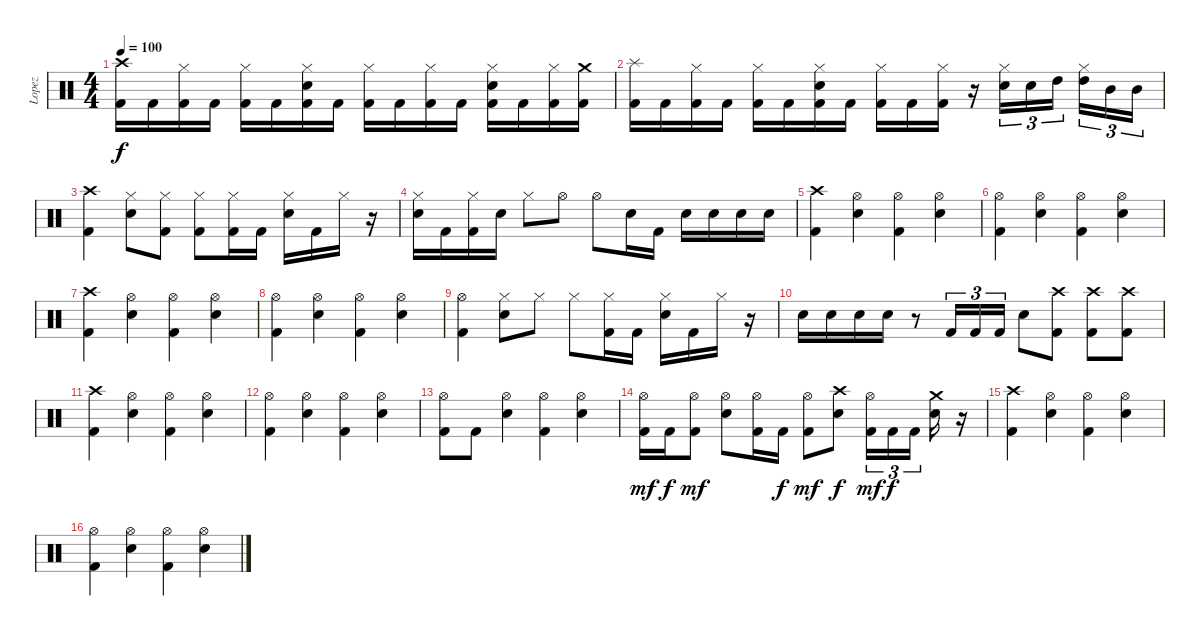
\track ("Lopez" "Lopez") {instrument percussion}
\staff {score}
\articulation defaults
\ts (4 4)
\tempo 100
\clef neutral
\ks c
("Crash high (hit)" "Kick (hit) 2").16{dy f} "Kick (hit) 2".16 ("Hi-Hat (closed)" "Kick (hit) 2").16 "Kick (hit) 2".16 ("Hi-Hat (closed)" "Kick (hit) 2").16 "Kick (hit) 2".16 ("Hi-Hat (closed)" "Snare (hit) 2" "Kick (hit) 2").16 "Kick (hit) 2".16 ("Hi-Hat (closed)" "Kick (hit) 2").16 "Kick (hit) 2".16 ("Hi-Hat (closed)" "Kick (hit) 2").16 "Kick (hit) 2".16 ("Hi-Hat (closed)" "Snare (hit) 2" "Kick (hit) 2").16 "Kick (hit) 2".16 ("Hi-Hat (closed)" "Kick (hit) 2").16 ("Crash medium (hit)" "Kick (hit) 2").16 |
("Splash (hit)" "Kick (hit) 2").16 "Kick (hit) 2".16 ("Hi-Hat (closed)" "Kick (hit) 2").16 "Kick (hit) 2".16 ("Hi-Hat (closed)" "Kick (hit) 2").16 "Kick (hit) 2".16 ("Hi-Hat (closed)" "Snare (hit) 2" "Kick (hit) 2").16 "Kick (hit) 2".16 ("Hi-Hat (closed)" "Kick (hit) 2").16 "Kick (hit) 2".16 ("Hi-Hat (closed)" "Kick (hit) 2").16 r.16 ("Hi-Hat (closed)" "Snare (hit) 2").16{tu (3 2)} "Snare (hit) 2".16{tu (3 2)} "High Tom (hit)".16{tu (3 2) beam splitsecondary} ("Hi-Hat (closed)" "High Tom (hit)").16{tu (3 2)} "Mid Tom (hit)".16{tu (3 2)} "Mid Tom (hit)".16{tu (3 2)} |
("Crash high (hit)" "Kick (hit) 2").4 ("Hi-Hat (closed)" "Snare (hit) 2").8 ("Hi-Hat (closed)" "Kick (hit) 2").8 ("Hi-Hat (closed)" "Kick (hit) 2").8 ("Hi-Hat (closed)" "Kick (hit) 2").16 "Kick (hit) 2".16 ("Hi-Hat (closed)" "Snare (hit) 2").16 "Kick (hit) 2".16 "Hi-Hat (closed)".16 r.16 |
("Hi-Hat (closed)" "Snare (hit) 2").16 "Kick (hit) 2".16 ("Hi-Hat (closed)" "Kick (hit) 2").16 "Snare (hit) 2".16 "Hi-Hat (closed)".8 "Hi-Hat (open)".8 "Hi-Hat (open)".8 "Snare (hit) 2".16 "Kick (hit) 2".16 "Snare (hit) 2".16 "Snare (hit) 2".16 "Snare (hit) 2".16 "Snare (hit) 2".16 |
("Crash high (hit)" "Kick (hit) 2").4 ("Hi-Hat (open)" "Snare (hit) 2").4 ("Hi-Hat (open)" "Kick (hit) 2").4 ("Hi-Hat (open)" "Snare (hit) 2").4 |
("Hi-Hat (open)" "Kick (hit) 2").4 ("Hi-Hat (open)" "Snare (hit) 2").4 ("Hi-Hat (open)" "Kick (hit) 2").4 ("Hi-Hat (open)" "Snare (hit) 2").4 |
("Crash high (hit)" "Kick (hit) 2").4 ("Hi-Hat (open)" "Snare (hit) 2").4 ("Hi-Hat (open)" "Kick (hit) 2").4 ("Hi-Hat (open)" "Snare (hit) 2").4 |
("Hi-Hat (open)" "Kick (hit) 2").4 ("Hi-Hat (open)" "Snare (hit) 2").4 ("Hi-Hat (open)" "Kick (hit) 2").4 ("Hi-Hat (open)" "Snare (hit) 2").4 |
("Hi-Hat (open)" "Kick (hit) 2").4 ("Hi-Hat (closed)" "Snare (hit) 2").8 "Hi-Hat (closed)".8 "Hi-Hat (closed)".8 ("Hi-Hat (closed)" "Kick (hit) 2").16 "Kick (hit) 2".16 ("Hi-Hat (closed)" "Snare (hit) 2").16 "Kick (hit) 2".16 "Hi-Hat (closed)".16 r.16 |
"Snare (hit) 2".16 "Snare (hit) 2".16 "Snare (hit) 2".16 "Snare (hit) 2".16 r.8 "Kick (hit) 2".16{tu (3 2)} "Kick (hit) 2".16{tu (3 2)} "Kick (hit) 2".16{tu (3 2)} "Snare (hit) 2".8 ("Crash high (hit)" "Kick (hit) 2").8 ("Crash high (hit)" "Kick (hit) 2").8 ("Crash high (hit)" "Kick (hit) 2").8 |
("Crash high (hit)" "Kick (hit) 2").4 ("Hi-Hat (open)" "Snare (hit) 2").4 ("Hi-Hat (open)" "Kick (hit) 2").4 ("Hi-Hat (open)" "Snare (hit) 2").4 |
("Hi-Hat (open)" "Kick (hit) 2").4 ("Hi-Hat (open)" "Snare (hit) 2").4 ("Hi-Hat (open)" "Kick (hit) 2").4 ("Hi-Hat (open)" "Snare (hit) 2").4 |
("Hi-Hat (open)" "Kick (hit) 2").8 "Kick (hit) 2".8 ("Hi-Hat (open)" "Snare (hit) 2").4 ("Hi-Hat (open)" "Kick (hit) 2").4 ("Hi-Hat (open)" "Snare (hit) 2").4 |
("Hi-Hat (open)" "Kick (hit) 2").16{dy mf} "Kick (hit) 2".16{dy f} ("Hi-Hat (open)" "Kick (hit) 2").8{dy mf} ("Hi-Hat (open)" "Snare (hit) 2").8 ("Hi-Hat (open)" "Kick (hit) 2").16 "Kick (hit) 2".16{dy f} ("Hi-Hat (open)" "Kick (hit) 2").8{dy mf} ("Crash high (hit)" "Snare (hit) 2").8{dy f} ("Hi-Hat (open)" "Kick (hit) 2").16{tu (3 2) dy mf} "Kick (hit) 2".16{tu (3 2) dy f} "Kick (hit) 2".16{tu (3 2) beam splitsecondary} ("Crash medium (hit)" "Snare (hit) 2").16 r.16 |
("Crash high (hit)" "Kick (hit) 2").4 ("Hi-Hat (open)" "Snare (hit) 2").4 ("Hi-Hat (open)" "Kick (hit) 2").4 ("Hi-Hat (open)" "Snare (hit) 2").4 |
("Hi-Hat (open)" "Kick (hit) 2").4 ("Hi-Hat (open)" "Snare (hit) 2").4 ("Hi-Hat (open)" "Kick (hit) 2").4 ("Hi-Hat (open)" "Snare (hit) 2").4
